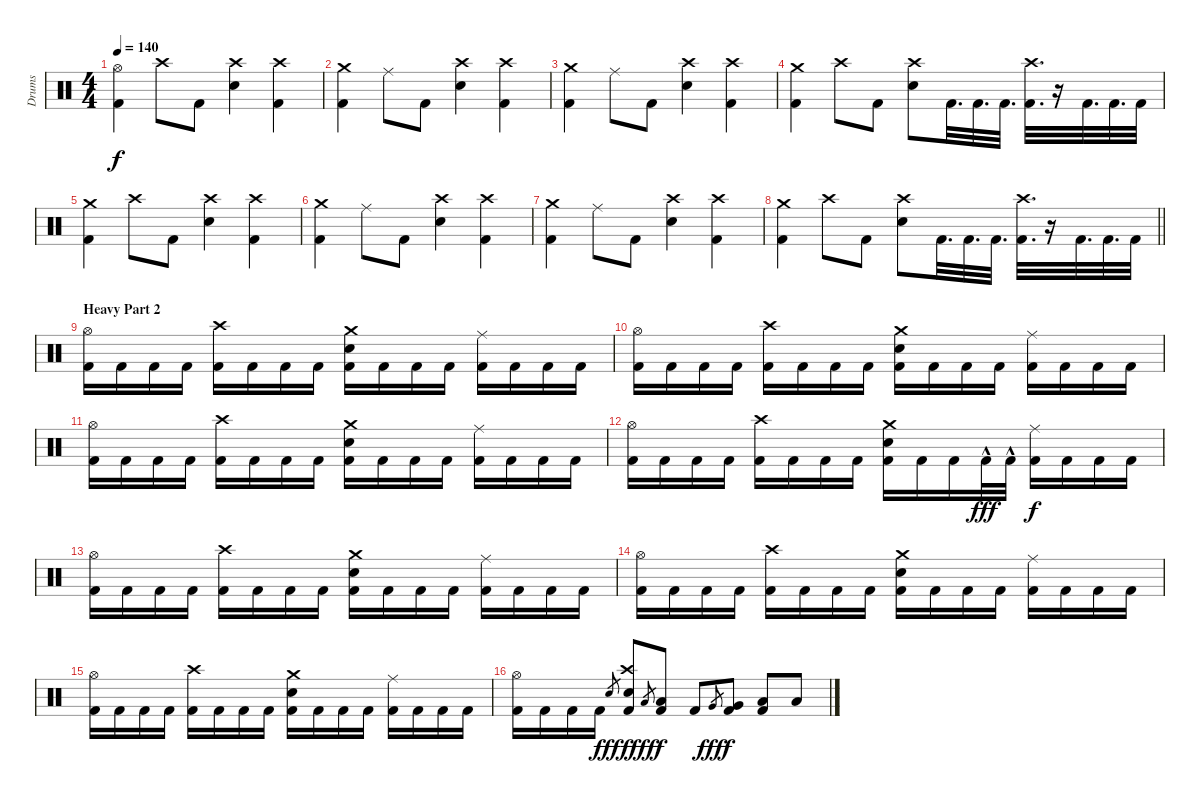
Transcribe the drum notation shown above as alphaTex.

\track ("Drums" "Drums") {instrument percussion}
\staff {score}
\articulation defaults
\ts (4 4)
\tempo 140
\clef neutral
\ks c
("Hi-Hat (open)" "Kick (hit) 2").4{dy f} "Crash high (hit)".8 "Kick (hit) 2".8 ("Crash high (hit)" "Electric Snare (hit)").4 ("Crash high (hit)" "Kick (hit) 2").4 |
("Crash medium (hit)" "Kick (hit) 2").4 "Ride (middle)".8 "Kick (hit) 2".8 ("Crash high (hit)" "Electric Snare (hit)").4 ("Crash high (hit)" "Kick (hit) 2").4 |
("Crash medium (hit)" "Kick (hit) 2").4 "Ride (middle)".8 "Kick (hit) 2".8 ("Crash high (hit)" "Electric Snare (hit)").4 ("Crash high (hit)" "Kick (hit) 2").4 |
("Crash medium (hit)" "Kick (hit) 2").4 "Crash high (hit)".8 "Kick (hit) 2".8 ("Crash high (hit)" "Electric Snare (hit)").8 "Kick (hit) 2".32{d} "Kick (hit) 2".32{d} "Kick (hit) 2".32{d} ("Crash high (hit)" "Kick (hit) 2").32{d} r.16 "Kick (hit) 2".32{d} "Kick (hit) 2".32{d} "Kick (hit) 2".32 |
("Crash medium (hit)" "Kick (hit) 2").4 "Crash high (hit)".8 "Kick (hit) 2".8 ("Crash high (hit)" "Electric Snare (hit)").4 ("Crash high (hit)" "Kick (hit) 2").4 |
("Crash medium (hit)" "Kick (hit) 2").4 "Ride (middle)".8 "Kick (hit) 2".8 ("Crash high (hit)" "Electric Snare (hit)").4 ("Crash high (hit)" "Kick (hit) 2").4 |
("Crash medium (hit)" "Kick (hit) 2").4 "Ride (middle)".8 "Kick (hit) 2".8 ("Crash high (hit)" "Electric Snare (hit)").4 ("Crash high (hit)" "Kick (hit) 2").4 |
\barLineRight lightlight
("Crash medium (hit)" "Kick (hit) 2").4 "Crash high (hit)".8 "Kick (hit) 2".8 ("Crash high (hit)" "Electric Snare (hit)").8 "Kick (hit) 2".32{d} "Kick (hit) 2".32{d} "Kick (hit) 2".32{d} ("Crash high (hit)" "Kick (hit) 2").32{d} r.16 "Kick (hit) 2".32{d} "Kick (hit) 2".32{d} "Kick (hit) 2".32 |
\section ("" "Heavy Part 2")
("Hi-Hat (open)" "Kick (hit) 2").16 "Kick (hit) 2".16 "Kick (hit) 2".16 "Kick (hit) 2".16 ("Crash high (hit)" "Kick (hit) 2").16 "Kick (hit) 2".16 "Kick (hit) 2".16 "Kick (hit) 2".16 ("Crash medium (hit)" "Electric Snare (hit)" "Kick (hit) 2").16 "Kick (hit) 2".16 "Kick (hit) 2".16 "Kick (hit) 2".16 ("Ride (middle)" "Kick (hit) 2").16 "Kick (hit) 2".16 "Kick (hit) 2".16 "Kick (hit) 2".16 |
("Hi-Hat (open)" "Kick (hit) 2").16 "Kick (hit) 2".16 "Kick (hit) 2".16 "Kick (hit) 2".16 ("Crash high (hit)" "Kick (hit) 2").16 "Kick (hit) 2".16 "Kick (hit) 2".16 "Kick (hit) 2".16 ("Crash medium (hit)" "Electric Snare (hit)" "Kick (hit) 2").16 "Kick (hit) 2".16 "Kick (hit) 2".16 "Kick (hit) 2".16 ("Ride (middle)" "Kick (hit) 2").16 "Kick (hit) 2".16 "Kick (hit) 2".16 "Kick (hit) 2".16 |
("Hi-Hat (open)" "Kick (hit) 2").16 "Kick (hit) 2".16 "Kick (hit) 2".16 "Kick (hit) 2".16 ("Crash high (hit)" "Kick (hit) 2").16 "Kick (hit) 2".16 "Kick (hit) 2".16 "Kick (hit) 2".16 ("Crash medium (hit)" "Electric Snare (hit)" "Kick (hit) 2").16 "Kick (hit) 2".16 "Kick (hit) 2".16 "Kick (hit) 2".16 ("Ride (middle)" "Kick (hit) 2").16 "Kick (hit) 2".16 "Kick (hit) 2".16 "Kick (hit) 2".16 |
("Hi-Hat (open)" "Kick (hit) 2").16 "Kick (hit) 2".16 "Kick (hit) 2".16 "Kick (hit) 2".16 ("Crash high (hit)" "Kick (hit) 2").16 "Kick (hit) 2".16 "Kick (hit) 2".16 "Kick (hit) 2".16 ("Crash medium (hit)" "Electric Snare (hit)" "Kick (hit) 2").16 "Kick (hit) 2".16 "Kick (hit) 2".16 "Kick (hit) 2"{hac}.32{dy fff} "Kick (hit) 2"{hac}.32 ("Ride (middle)" "Kick (hit) 2").16{dy f} "Kick (hit) 2".16 "Kick (hit) 2".16 "Kick (hit) 2".16 |
("Hi-Hat (open)" "Kick (hit) 2").16 "Kick (hit) 2".16 "Kick (hit) 2".16 "Kick (hit) 2".16 ("Crash high (hit)" "Kick (hit) 2").16 "Kick (hit) 2".16 "Kick (hit) 2".16 "Kick (hit) 2".16 ("Crash medium (hit)" "Electric Snare (hit)" "Kick (hit) 2").16 "Kick (hit) 2".16 "Kick (hit) 2".16 "Kick (hit) 2".16 ("Ride (middle)" "Kick (hit) 2").16 "Kick (hit) 2".16 "Kick (hit) 2".16 "Kick (hit) 2".16 |
("Hi-Hat (open)" "Kick (hit) 2").16 "Kick (hit) 2".16 "Kick (hit) 2".16 "Kick (hit) 2".16 ("Crash high (hit)" "Kick (hit) 2").16 "Kick (hit) 2".16 "Kick (hit) 2".16 "Kick (hit) 2".16 ("Crash medium (hit)" "Electric Snare (hit)" "Kick (hit) 2").16 "Kick (hit) 2".16 "Kick (hit) 2".16 "Kick (hit) 2".16 ("Ride (middle)" "Kick (hit) 2").16 "Kick (hit) 2".16 "Kick (hit) 2".16 "Kick (hit) 2".16 |
("Hi-Hat (open)" "Kick (hit) 2").16 "Kick (hit) 2".16 "Kick (hit) 2".16 "Kick (hit) 2".16 ("Crash high (hit)" "Kick (hit) 2").16 "Kick (hit) 2".16 "Kick (hit) 2".16 "Kick (hit) 2".16 ("Crash medium (hit)" "Electric Snare (hit)" "Kick (hit) 2").16 "Kick (hit) 2".16 "Kick (hit) 2".16 "Kick (hit) 2".16 ("Ride (middle)" "Kick (hit) 2").16 "Kick (hit) 2".16 "Kick (hit) 2".16 "Kick (hit) 2".16 |
("Hi-Hat (open)" "Kick (hit) 2").16 "Kick (hit) 2".16 "Kick (hit) 2".16 "Kick (hit) 2".16 "Electric Snare (hit)".8{gr dy fff} ("Crash high (hit)" "Electric Snare (hit)" "Kick (hit) 2").8{dy f} "Low Tom (hit)".8{gr dy fff} ("Low Tom (hit)" "Kick (hit) 2").8{dy f} "Kick (hit) 2".8 "Very Low Tom (hit)".8{gr dy fff} ("Very Low Tom (hit)" "Kick (hit) 2").8{dy f} ("Low Floor Tom (hit)" "Kick (hit) 2").8 "Low Tom (hit)".8
